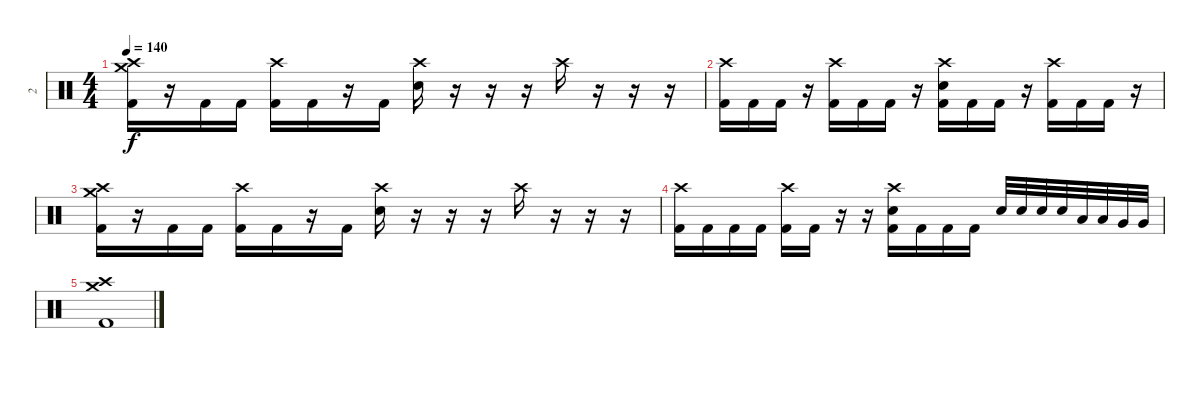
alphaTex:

\track ("2" "2") {instrument percussion}
\staff {score}
\articulation defaults
\ts (4 4)
\tempo 140
\clef neutral
\ks c
("Crash medium (hit)" "Crash high (hit)" "Kick (hit) 2").16{dy f} r.16 "Kick (hit) 2".16 "Kick (hit) 2".16 ("Crash high (hit)" "Kick (hit) 2").16 "Kick (hit) 2".16 r.16 "Kick (hit) 2".16 ("Crash high (hit)" "Snare (hit) 2").16 r.16 r.16 r.16 "Crash high (hit)".16 r.16 r.16 r.16 |
("Crash high (hit)" "Kick (hit) 2").16 "Kick (hit) 2".16 "Kick (hit) 2".16 r.16 ("Crash high (hit)" "Kick (hit) 2").16 "Kick (hit) 2".16 "Kick (hit) 2".16 r.16 ("Crash high (hit)" "Snare (hit) 2" "Kick (hit) 2").16 "Kick (hit) 2".16 "Kick (hit) 2".16 r.16 ("Crash high (hit)" "Kick (hit) 2").16 "Kick (hit) 2".16 "Kick (hit) 2".16 r.16 |
("Crash medium (hit)" "Crash high (hit)" "Kick (hit) 2").16 r.16 "Kick (hit) 2".16 "Kick (hit) 2".16 ("Crash high (hit)" "Kick (hit) 2").16 "Kick (hit) 2".16 r.16 "Kick (hit) 2".16 ("Crash high (hit)" "Snare (hit) 2").16 r.16 r.16 r.16 "Crash high (hit)".16 r.16 r.16 r.16 |
("Crash high (hit)" "Kick (hit) 2").16 "Kick (hit) 2".16 "Kick (hit) 2".16 "Kick (hit) 2".16 ("Crash high (hit)" "Kick (hit) 2").16 "Kick (hit) 2".16 r.16 r.16 ("Crash high (hit)" "Snare (hit) 2" "Kick (hit) 2").16 "Kick (hit) 2".16 "Kick (hit) 2".16 "Kick (hit) 2".16 "Snare (hit) 2".32 "Snare (hit) 2".32 "Snare (hit) 2".32 "Snare (hit) 2".32 "Low Floor Tom (hit)".32 "Low Floor Tom (hit)".32 "Very Low Tom (hit)".32 "Very Low Tom (hit)".32 |
("Crash medium (hit)" "Crash high (hit)" "Kick (hit) 2").1
